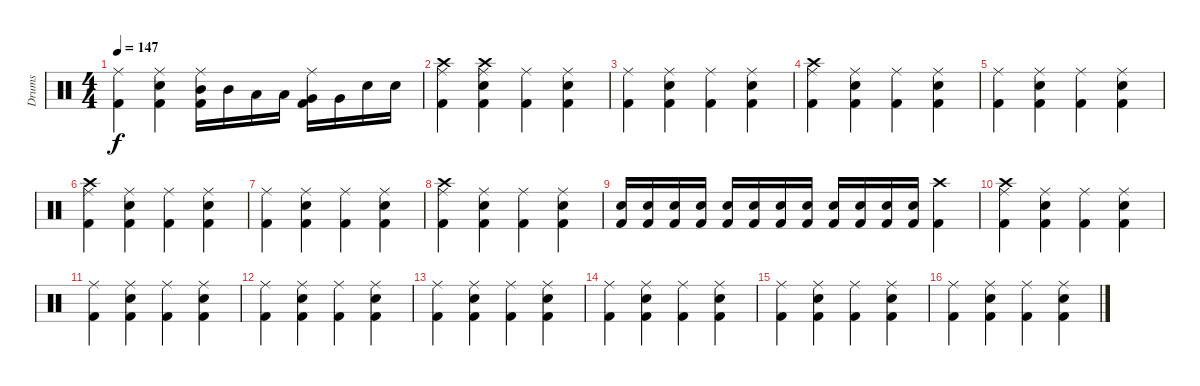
\track ("Drums" "Drums") {instrument percussion}
\staff {score}
\articulation defaults
\ts (4 4)
\tempo 147
\clef neutral
\ks c
("Ride (middle)" "Kick (hit) 2").4{dy f} ("Ride (middle)" "Electric Snare (hit)" "Kick (hit) 2").4 ("Ride (middle)" "Mid Tom (hit)" "Kick (hit) 2").16 "Mid Tom (hit)".16 "Low Tom (hit)".16 "Low Tom (hit)".16 ("Ride (middle)" "Very Low Tom (hit)" "Kick (hit) 2").16 "Very Low Tom (hit)".16 "Snare (hit) 2".16 "Snare (hit) 2".16 |
("Crash high (hit)" "Ride (middle)" "Kick (hit) 2").4 ("Crash high (hit)" "Ride (middle)" "Electric Snare (hit)" "Kick (hit) 2").4 ("Ride (middle)" "Kick (hit) 2").4 ("Ride (middle)" "Electric Snare (hit)" "Kick (hit) 2").4 |
("Ride (middle)" "Kick (hit) 2").4 ("Ride (middle)" "Electric Snare (hit)" "Kick (hit) 2").4 ("Ride (middle)" "Kick (hit) 2").4 ("Ride (middle)" "Electric Snare (hit)" "Kick (hit) 2").4 |
("Crash high (hit)" "Ride (middle)" "Kick (hit) 2").4 ("Ride (middle)" "Electric Snare (hit)" "Kick (hit) 2").4 ("Ride (middle)" "Kick (hit) 2").4 ("Ride (middle)" "Electric Snare (hit)" "Kick (hit) 2").4 |
("Ride (middle)" "Kick (hit) 2").4 ("Ride (middle)" "Electric Snare (hit)" "Kick (hit) 2").4 ("Ride (middle)" "Kick (hit) 2").4 ("Ride (middle)" "Electric Snare (hit)" "Kick (hit) 2").4 |
("Crash high (hit)" "Ride (middle)" "Kick (hit) 2").4 ("Ride (middle)" "Electric Snare (hit)" "Kick (hit) 2").4 ("Ride (middle)" "Kick (hit) 2").4 ("Ride (middle)" "Electric Snare (hit)" "Kick (hit) 2").4 |
("Ride (middle)" "Kick (hit) 2").4 ("Ride (middle)" "Electric Snare (hit)" "Kick (hit) 2").4 ("Ride (middle)" "Kick (hit) 2").4 ("Ride (middle)" "Electric Snare (hit)" "Kick (hit) 2").4 |
("Crash high (hit)" "Ride (middle)" "Kick (hit) 2").4 ("Ride (middle)" "Electric Snare (hit)" "Kick (hit) 2").4 ("Ride (middle)" "Kick (hit) 2").4 ("Ride (middle)" "Electric Snare (hit)" "Kick (hit) 2").4 |
("Electric Snare (hit)" "Kick (hit) 2").16 ("Electric Snare (hit)" "Kick (hit) 2").16 ("Electric Snare (hit)" "Kick (hit) 2").16 ("Electric Snare (hit)" "Kick (hit) 2").16 ("Electric Snare (hit)" "Kick (hit) 2").16 ("Electric Snare (hit)" "Kick (hit) 2").16 ("Electric Snare (hit)" "Kick (hit) 2").16 ("Electric Snare (hit)" "Kick (hit) 2").16 ("Electric Snare (hit)" "Kick (hit) 2").16 ("Electric Snare (hit)" "Kick (hit) 2").16 ("Electric Snare (hit)" "Kick (hit) 2").16 ("Electric Snare (hit)" "Kick (hit) 2").16 ("Crash high (hit)" "Kick (hit) 2").4 |
("Crash high (hit)" "Ride (middle)" "Kick (hit) 2").4 ("Ride (middle)" "Electric Snare (hit)" "Kick (hit) 2").4 ("Ride (middle)" "Kick (hit) 2").4 ("Ride (middle)" "Electric Snare (hit)" "Kick (hit) 2").4 |
("Ride (middle)" "Kick (hit) 2").4 ("Ride (middle)" "Electric Snare (hit)" "Kick (hit) 2").4 ("Ride (middle)" "Kick (hit) 2").4 ("Ride (middle)" "Electric Snare (hit)" "Kick (hit) 2").4 |
("Ride (middle)" "Kick (hit) 2").4 ("Ride (middle)" "Electric Snare (hit)" "Kick (hit) 2").4 ("Ride (middle)" "Kick (hit) 2").4 ("Ride (middle)" "Electric Snare (hit)" "Kick (hit) 2").4 |
("Ride (middle)" "Kick (hit) 2").4 ("Ride (middle)" "Electric Snare (hit)" "Kick (hit) 2").4 ("Ride (middle)" "Kick (hit) 2").4 ("Ride (middle)" "Electric Snare (hit)" "Kick (hit) 2").4 |
("Ride (middle)" "Kick (hit) 2").4 ("Ride (middle)" "Electric Snare (hit)" "Kick (hit) 2").4 ("Ride (middle)" "Kick (hit) 2").4 ("Ride (middle)" "Electric Snare (hit)" "Kick (hit) 2").4 |
("Ride (middle)" "Kick (hit) 2").4 ("Ride (middle)" "Electric Snare (hit)" "Kick (hit) 2").4 ("Ride (middle)" "Kick (hit) 2").4 ("Ride (middle)" "Electric Snare (hit)" "Kick (hit) 2").4 |
("Ride (middle)" "Kick (hit) 2").4 ("Ride (middle)" "Electric Snare (hit)" "Kick (hit) 2").4 ("Ride (middle)" "Kick (hit) 2").4 ("Ride (middle)" "Electric Snare (hit)" "Kick (hit) 2").4
